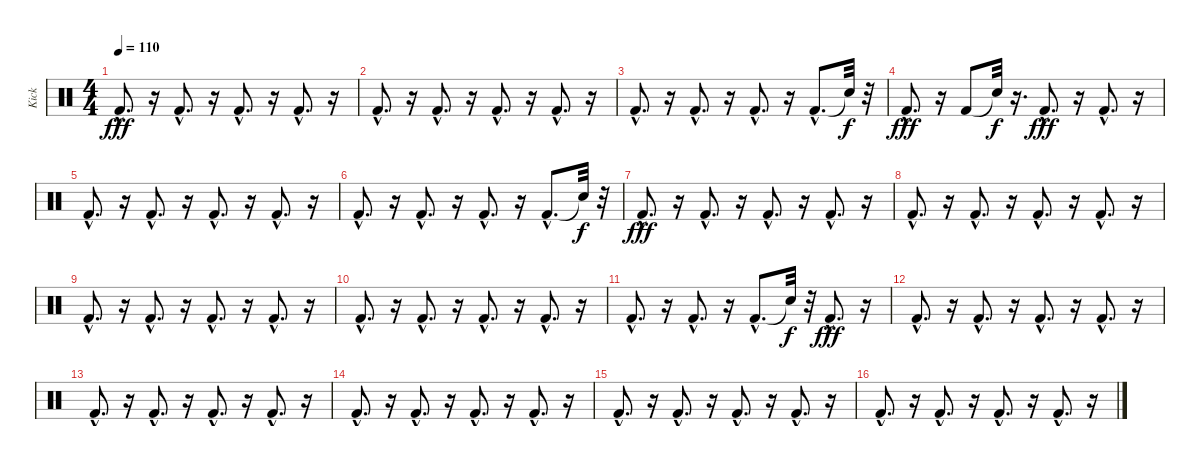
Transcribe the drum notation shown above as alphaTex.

\track ("Kick" "Kick") {instrument percussion}
\staff {score}
\articulation defaults
\ts (4 4)
\tempo 110
\clef neutral
\ks c "Kick (hit) 2"{hac}.8{d dy fff}
r.16 "Kick (hit) 2"{hac}.8{d} r.16 "Kick (hit) 2"{hac}.8{d} r.16 "Kick (hit) 2"{hac}.8{d} r.16 |
"Kick (hit) 2"{hac}.8{d} r.16 "Kick (hit) 2"{hac}.8{d} r.16 "Kick (hit) 2"{hac}.8{d} r.16 "Kick (hit) 2"{hac}.8{d} r.16 |
"Kick (hit) 2"{hac}.8{d} r.16 "Kick (hit) 2"{hac}.8{d} r.16 "Kick (hit) 2"{hac}.8{d} r.16 "Kick (hit) 2"{hac}.8{d} "Snare (hit)"{t}.32{dy f} r.32 |
"Kick (hit) 2"{hac}.8{d dy fff} r.16 "Kick (hit) 2".8 "Snare (hit)"{t}.32{dy f} r.16{d} "Kick (hit) 2"{hac}.8{d dy fff} r.16 "Kick (hit) 2"{hac}.8{d} r.16 |
"Kick (hit) 2"{hac}.8{d} r.16 "Kick (hit) 2"{hac}.8{d} r.16 "Kick (hit) 2"{hac}.8{d} r.16 "Kick (hit) 2"{hac}.8{d} r.16 |
"Kick (hit) 2"{hac}.8{d} r.16 "Kick (hit) 2"{hac}.8{d} r.16 "Kick (hit) 2"{hac}.8{d} r.16 "Kick (hit) 2"{hac}.8{d} "Snare (hit)"{t}.32{dy f} r.32 |
"Kick (hit) 2"{hac}.8{d dy fff} r.16 "Kick (hit) 2"{hac}.8{d} r.16 "Kick (hit) 2"{hac}.8{d} r.16 "Kick (hit) 2"{hac}.8{d} r.16 |
"Kick (hit) 2"{hac}.8{d} r.16 "Kick (hit) 2"{hac}.8{d} r.16 "Kick (hit) 2"{hac}.8{d} r.16 "Kick (hit) 2"{hac}.8{d} r.16 |
"Kick (hit) 2"{hac}.8{d} r.16 "Kick (hit) 2"{hac}.8{d} r.16 "Kick (hit) 2"{hac}.8{d} r.16 "Kick (hit) 2"{hac}.8{d} r.16 |
"Kick (hit) 2"{hac}.8{d} r.16 "Kick (hit) 2"{hac}.8{d} r.16 "Kick (hit) 2"{hac}.8{d} r.16 "Kick (hit) 2"{hac}.8{d} r.16 |
"Kick (hit) 2"{hac}.8{d} r.16 "Kick (hit) 2"{hac}.8{d} r.16 "Kick (hit) 2"{hac}.8{d} "Snare (hit)"{t}.32{dy f} r.32 "Kick (hit) 2"{hac}.8{d dy fff} r.16 |
"Kick (hit) 2"{hac}.8{d} r.16 "Kick (hit) 2"{hac}.8{d} r.16 "Kick (hit) 2"{hac}.8{d} r.16 "Kick (hit) 2"{hac}.8{d} r.16 |
"Kick (hit) 2"{hac}.8{d} r.16 "Kick (hit) 2"{hac}.8{d} r.16 "Kick (hit) 2"{hac}.8{d} r.16 "Kick (hit) 2"{hac}.8{d} r.16 |
"Kick (hit) 2"{hac}.8{d} r.16 "Kick (hit) 2"{hac}.8{d} r.16 "Kick (hit) 2"{hac}.8{d} r.16 "Kick (hit) 2"{hac}.8{d} r.16 |
"Kick (hit) 2"{hac}.8{d} r.16 "Kick (hit) 2"{hac}.8{d} r.16 "Kick (hit) 2"{hac}.8{d} r.16 "Kick (hit) 2"{hac}.8{d} r.16 |
"Kick (hit) 2"{hac}.8{d} r.16 "Kick (hit) 2"{hac}.8{d} r.16 "Kick (hit) 2"{hac}.8{d} r.16 "Kick (hit) 2"{hac}.8{d} r.16
